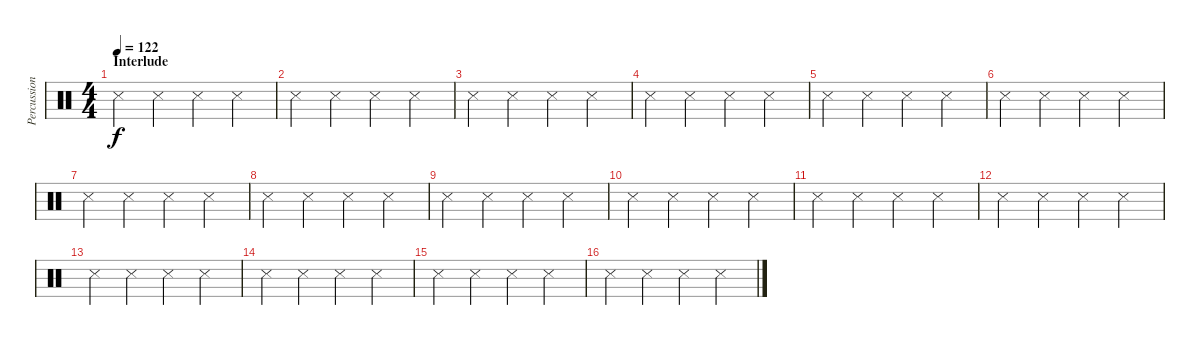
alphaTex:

\track ("Percussion" "Percussion") {instrument percussion}
\staff {score}
\articulation defaults
\ts (4 4)
\section ("" "Interlude")
\tempo 122
\clef neutral
\ks c "Snare (side stick) 3".4{dy f} "Metronome (hit)".4 "Metronome (hit)".4 "Metronome (hit)".4
|
"Snare (side stick) 3".4 "Metronome (hit)".4 "Metronome (hit)".4 "Metronome (hit)".4 |
"Snare (side stick) 3".4 "Metronome (hit)".4 "Metronome (hit)".4 "Metronome (hit)".4 |
"Snare (side stick) 3".4 "Metronome (hit)".4 "Metronome (hit)".4 "Metronome (hit)".4 |
"Snare (side stick) 3".4 "Metronome (hit)".4 "Metronome (hit)".4 "Metronome (hit)".4 |
"Snare (side stick) 3".4 "Metronome (hit)".4 "Metronome (hit)".4 "Metronome (hit)".4 |
"Snare (side stick) 3".4 "Metronome (hit)".4 "Metronome (hit)".4 "Metronome (hit)".4 |
"Snare (side stick) 3".4 "Metronome (hit)".4 "Metronome (hit)".4 "Metronome (hit)".4 |
"Snare (side stick) 3".4 "Metronome (hit)".4 "Metronome (hit)".4 "Metronome (hit)".4 |
"Snare (side stick) 3".4 "Metronome (hit)".4 "Metronome (hit)".4 "Metronome (hit)".4 |
"Snare (side stick) 3".4 "Metronome (hit)".4 "Metronome (hit)".4 "Metronome (hit)".4 |
"Snare (side stick) 3".4 "Metronome (hit)".4 "Metronome (hit)".4 "Metronome (hit)".4 |
"Snare (side stick) 3".4 "Metronome (hit)".4 "Metronome (hit)".4 "Metronome (hit)".4 |
"Snare (side stick) 3".4 "Metronome (hit)".4 "Metronome (hit)".4 "Metronome (hit)".4 |
"Snare (side stick) 3".4 "Metronome (hit)".4 "Metronome (hit)".4 "Metronome (hit)".4 |
"Snare (side stick) 3".4 "Metronome (hit)".4 "Metronome (hit)".4 "Metronome (hit)".4
